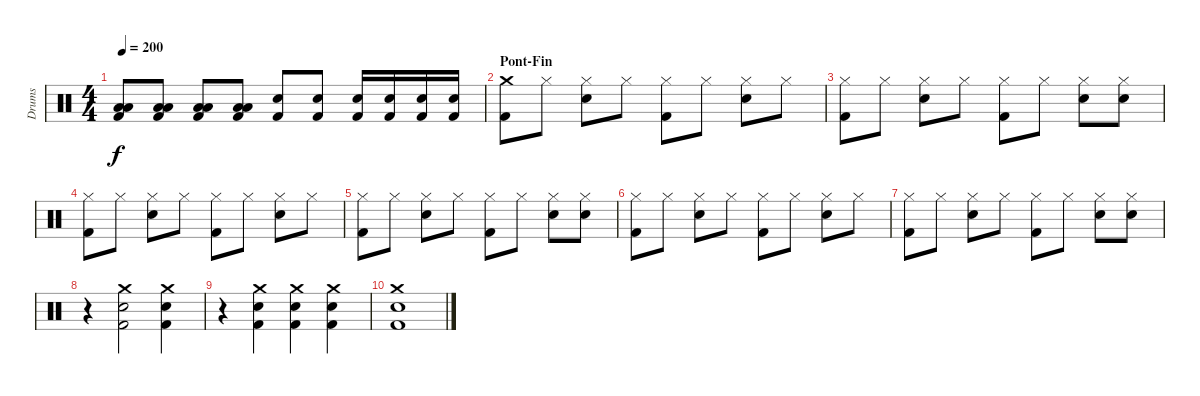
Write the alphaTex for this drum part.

\track ("Drums" "Drums") {instrument percussion}
\staff {score}
\articulation defaults
\ts (4 4)
\tempo 200
\clef neutral
\ks c
("Low Tom (hit)" "Low Floor Tom (hit)" "Kick (hit) 2").8{dy f} ("Low Tom (hit)" "Low Floor Tom (hit)" "Kick (hit) 2").8 ("Low Tom (hit)" "Low Floor Tom (hit)" "Kick (hit) 2").8 ("Low Tom (hit)" "Low Floor Tom (hit)" "Kick (hit) 2").8 ("Snare (hit) 2" "Kick (hit) 2").8 ("Snare (hit) 2" "Kick (hit) 2").8 ("Snare (hit) 2" "Kick (hit) 2").16 ("Snare (hit) 2" "Kick (hit) 2").16 ("Snare (hit) 2" "Kick (hit) 2").16 ("Snare (hit) 2" "Kick (hit) 2").16 |
\section ("" "Pont-Fin")
("Crash medium (hit)" "Kick (hit) 2").8 "Hi-Hat (closed)".8 ("Hi-Hat (closed)" "Snare (hit) 2").8 "Hi-Hat (closed)".8 ("Hi-Hat (closed)" "Kick (hit) 2").8 "Hi-Hat (closed)".8 ("Hi-Hat (closed)" "Snare (hit) 2").8 "Hi-Hat (closed)".8 |
("Hi-Hat (closed)" "Kick (hit) 2").8 "Hi-Hat (closed)".8 ("Hi-Hat (closed)" "Snare (hit) 2").8 "Hi-Hat (closed)".8 ("Hi-Hat (closed)" "Kick (hit) 2").8 "Hi-Hat (closed)".8 ("Hi-Hat (closed)" "Snare (hit) 2").8 ("Hi-Hat (closed)" "Snare (hit) 2").8 |
("Hi-Hat (closed)" "Kick (hit) 2").8 "Hi-Hat (closed)".8 ("Hi-Hat (closed)" "Snare (hit) 2").8 "Hi-Hat (closed)".8 ("Hi-Hat (closed)" "Kick (hit) 2").8 "Hi-Hat (closed)".8 ("Hi-Hat (closed)" "Snare (hit) 2").8 "Hi-Hat (closed)".8 |
("Hi-Hat (closed)" "Kick (hit) 2").8 "Hi-Hat (closed)".8 ("Hi-Hat (closed)" "Snare (hit) 2").8 "Hi-Hat (closed)".8 ("Hi-Hat (closed)" "Kick (hit) 2").8 "Hi-Hat (closed)".8 ("Hi-Hat (closed)" "Snare (hit) 2").8 ("Hi-Hat (closed)" "Snare (hit) 2").8 |
("Hi-Hat (closed)" "Kick (hit) 2").8 "Hi-Hat (closed)".8 ("Hi-Hat (closed)" "Snare (hit) 2").8 "Hi-Hat (closed)".8 ("Hi-Hat (closed)" "Kick (hit) 2").8 "Hi-Hat (closed)".8 ("Hi-Hat (closed)" "Snare (hit) 2").8 "Hi-Hat (closed)".8 |
("Hi-Hat (closed)" "Kick (hit) 2").8 "Hi-Hat (closed)".8 ("Hi-Hat (closed)" "Snare (hit) 2").8 "Hi-Hat (closed)".8 ("Hi-Hat (closed)" "Kick (hit) 2").8 "Hi-Hat (closed)".8 ("Hi-Hat (closed)" "Snare (hit) 2").8 ("Hi-Hat (closed)" "Snare (hit) 2").8 |
r.4 ("Crash medium (hit)" "Snare (hit) 2" "Kick (hit) 2").2 ("Crash medium (hit)" "Snare (hit) 2" "Kick (hit) 2").4 |
r.4 ("Crash medium (hit)" "Snare (hit) 2" "Kick (hit) 2").4 ("Crash medium (hit)" "Snare (hit) 2" "Kick (hit) 2").4 ("Crash medium (hit)" "Snare (hit) 2" "Kick (hit) 2").4 |
("Crash medium (hit)" "Snare (hit) 2" "Kick (hit) 2").1
